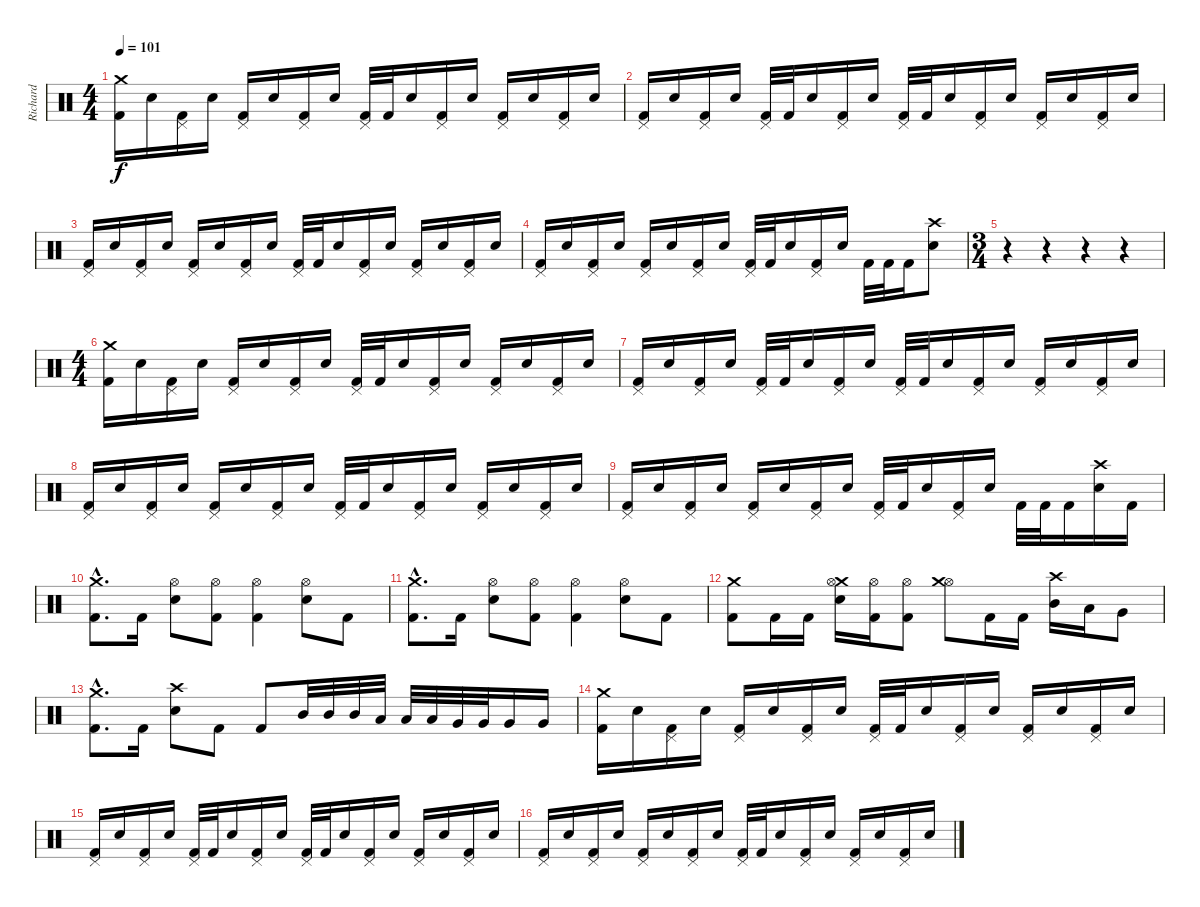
\track ("Richard" "Richard") {instrument percussion}
\staff {score}
\articulation defaults
\ts (4 4)
\tempo 101
\clef neutral
\ks c
("Crash medium (hit)" "Kick (hit) 2").16{dy f} "Electric Snare (hit)".16 ("Pedal Hi-Hat (hit)" "Kick (hit) 2").16 "Electric Snare (hit)".16 ("Pedal Hi-Hat (hit)" "Kick (hit) 2").16 "Electric Snare (hit)".16 ("Pedal Hi-Hat (hit)" "Kick (hit) 2").16 "Electric Snare (hit)".16 ("Pedal Hi-Hat (hit)" "Kick (hit) 2").32 "Kick (hit) 2".32 "Electric Snare (hit)".16 ("Pedal Hi-Hat (hit)" "Kick (hit) 2").16 "Electric Snare (hit)".16 ("Pedal Hi-Hat (hit)" "Kick (hit) 2").16 "Electric Snare (hit)".16 ("Pedal Hi-Hat (hit)" "Kick (hit) 2").16 "Electric Snare (hit)".16 |
("Pedal Hi-Hat (hit)" "Kick (hit) 2").16 "Electric Snare (hit)".16 ("Pedal Hi-Hat (hit)" "Kick (hit) 2").16 "Electric Snare (hit)".16 ("Pedal Hi-Hat (hit)" "Kick (hit) 2").32 "Kick (hit) 2".32 "Electric Snare (hit)".16 ("Pedal Hi-Hat (hit)" "Kick (hit) 2").16 "Electric Snare (hit)".16 ("Pedal Hi-Hat (hit)" "Kick (hit) 2").32 "Kick (hit) 2".32 "Electric Snare (hit)".16 ("Pedal Hi-Hat (hit)" "Kick (hit) 2").16 "Electric Snare (hit)".16 ("Pedal Hi-Hat (hit)" "Kick (hit) 2").16 "Electric Snare (hit)".16 ("Pedal Hi-Hat (hit)" "Kick (hit) 2").16 "Electric Snare (hit)".16 |
("Pedal Hi-Hat (hit)" "Kick (hit) 2").16 "Electric Snare (hit)".16 ("Pedal Hi-Hat (hit)" "Kick (hit) 2").16 "Electric Snare (hit)".16 ("Pedal Hi-Hat (hit)" "Kick (hit) 2").16 "Electric Snare (hit)".16 ("Pedal Hi-Hat (hit)" "Kick (hit) 2").16 "Electric Snare (hit)".16 ("Pedal Hi-Hat (hit)" "Kick (hit) 2").32 "Kick (hit) 2".32 "Electric Snare (hit)".16 ("Pedal Hi-Hat (hit)" "Kick (hit) 2").16 "Electric Snare (hit)".16 ("Pedal Hi-Hat (hit)" "Kick (hit) 2").16 "Electric Snare (hit)".16 ("Pedal Hi-Hat (hit)" "Kick (hit) 2").16 "Electric Snare (hit)".16 |
("Pedal Hi-Hat (hit)" "Kick (hit) 2").16 "Electric Snare (hit)".16 ("Pedal Hi-Hat (hit)" "Kick (hit) 2").16 "Electric Snare (hit)".16 ("Pedal Hi-Hat (hit)" "Kick (hit) 2").16 "Electric Snare (hit)".16 ("Pedal Hi-Hat (hit)" "Kick (hit) 2").16 "Electric Snare (hit)".16 ("Pedal Hi-Hat (hit)" "Kick (hit) 2").32 "Kick (hit) 2".32 "Electric Snare (hit)".16 ("Pedal Hi-Hat (hit)" "Kick (hit) 2").16 "Electric Snare (hit)".16 "Kick (hit) 2".32 "Kick (hit) 2".32 "Kick (hit) 2".16 ("Crash high (hit)" "Electric Snare (hit)").8 |
\ts (3 4)
r.4 r.4 r.4 r.4 |
\ts (4 4)
("Crash medium (hit)" "Kick (hit) 2").16 "Electric Snare (hit)".16 ("Pedal Hi-Hat (hit)" "Kick (hit) 2").16 "Electric Snare (hit)".16 ("Pedal Hi-Hat (hit)" "Kick (hit) 2").16 "Electric Snare (hit)".16 ("Pedal Hi-Hat (hit)" "Kick (hit) 2").16 "Electric Snare (hit)".16 ("Pedal Hi-Hat (hit)" "Kick (hit) 2").32 "Kick (hit) 2".32 "Electric Snare (hit)".16 ("Pedal Hi-Hat (hit)" "Kick (hit) 2").16 "Electric Snare (hit)".16 ("Pedal Hi-Hat (hit)" "Kick (hit) 2").16 "Electric Snare (hit)".16 ("Pedal Hi-Hat (hit)" "Kick (hit) 2").16 "Electric Snare (hit)".16 |
("Pedal Hi-Hat (hit)" "Kick (hit) 2").16 "Electric Snare (hit)".16 ("Pedal Hi-Hat (hit)" "Kick (hit) 2").16 "Electric Snare (hit)".16 ("Pedal Hi-Hat (hit)" "Kick (hit) 2").32 "Kick (hit) 2".32 "Electric Snare (hit)".16 ("Pedal Hi-Hat (hit)" "Kick (hit) 2").16 "Electric Snare (hit)".16 ("Pedal Hi-Hat (hit)" "Kick (hit) 2").32 "Kick (hit) 2".32 "Electric Snare (hit)".16 ("Pedal Hi-Hat (hit)" "Kick (hit) 2").16 "Electric Snare (hit)".16 ("Pedal Hi-Hat (hit)" "Kick (hit) 2").16 "Electric Snare (hit)".16 ("Pedal Hi-Hat (hit)" "Kick (hit) 2").16 "Electric Snare (hit)".16 |
("Pedal Hi-Hat (hit)" "Kick (hit) 2").16 "Electric Snare (hit)".16 ("Pedal Hi-Hat (hit)" "Kick (hit) 2").16 "Electric Snare (hit)".16 ("Pedal Hi-Hat (hit)" "Kick (hit) 2").16 "Electric Snare (hit)".16 ("Pedal Hi-Hat (hit)" "Kick (hit) 2").16 "Electric Snare (hit)".16 ("Pedal Hi-Hat (hit)" "Kick (hit) 2").32 "Kick (hit) 2".32 "Electric Snare (hit)".16 ("Pedal Hi-Hat (hit)" "Kick (hit) 2").16 "Electric Snare (hit)".16 ("Pedal Hi-Hat (hit)" "Kick (hit) 2").16 "Electric Snare (hit)".16 ("Pedal Hi-Hat (hit)" "Kick (hit) 2").16 "Electric Snare (hit)".16 |
("Pedal Hi-Hat (hit)" "Kick (hit) 2").16 "Electric Snare (hit)".16 ("Pedal Hi-Hat (hit)" "Kick (hit) 2").16 "Electric Snare (hit)".16 ("Pedal Hi-Hat (hit)" "Kick (hit) 2").16 "Electric Snare (hit)".16 ("Pedal Hi-Hat (hit)" "Kick (hit) 2").16 "Electric Snare (hit)".16 ("Pedal Hi-Hat (hit)" "Kick (hit) 2").32 "Kick (hit) 2".32 "Electric Snare (hit)".16 ("Pedal Hi-Hat (hit)" "Kick (hit) 2").16 "Electric Snare (hit)".16 "Kick (hit) 2".32 "Kick (hit) 2".32 "Kick (hit) 2".16 ("Crash high (hit)" "Electric Snare (hit)").16 "Kick (hit) 2".16 |
("Crash medium (hit)"{hac} "Kick (hit) 2"{hac}).8{d} "Kick (hit) 2".16 ("Hi-Hat (open)" "Electric Snare (hit)").8 ("Hi-Hat (open)" "Kick (hit) 2").8 ("Hi-Hat (open)" "Kick (hit) 2").4 ("Hi-Hat (open)" "Electric Snare (hit)").8 "Kick (hit) 2".8 |
("Crash medium (hit)"{hac} "Kick (hit) 2"{hac}).8{d} "Kick (hit) 2".16 ("Hi-Hat (open)" "Electric Snare (hit)").8 ("Hi-Hat (open)" "Kick (hit) 2").8 ("Hi-Hat (open)" "Kick (hit) 2").4 ("Hi-Hat (open)" "Electric Snare (hit)").8 "Kick (hit) 2".8 |
("Crash medium (hit)" "Kick (hit) 2").8 "Kick (hit) 2".16 "Kick (hit) 2".16 ("Crash medium (hit)" "Hi-Hat (open)" "Electric Snare (hit)").16 ("Hi-Hat (open)" "Kick (hit) 2").16 ("Hi-Hat (open)" "Kick (hit) 2").8 ("Hi-Hat (open)" "Crash medium (hit)").8 "Kick (hit) 2".16 "Kick (hit) 2".16 ("Crash high (hit)" "Mid Tom (hit)").16 "Low Tom (hit)".16 "Very Low Tom (hit)".8 |
("Crash medium (hit)"{hac} "Kick (hit) 2"{hac}).8{d} "Kick (hit) 2".16 ("Crash high (hit)" "Electric Snare (hit)").8 "Kick (hit) 2".8 "Kick (hit) 2".8 "Mid Tom (hit)".32 "Mid Tom (hit)".32 "Mid Tom (hit)".32 "Low Tom (hit)".32 "Low Tom (hit)".32 "Low Tom (hit)".32 "Very Low Tom (hit)".32 "Very Low Tom (hit)".32 "Very Low Tom (hit)".16 "Very Low Tom (hit)".16 |
("Crash medium (hit)" "Kick (hit) 2").16 "Electric Snare (hit)".16 ("Pedal Hi-Hat (hit)" "Kick (hit) 2").16 "Electric Snare (hit)".16 ("Pedal Hi-Hat (hit)" "Kick (hit) 2").16 "Electric Snare (hit)".16 ("Pedal Hi-Hat (hit)" "Kick (hit) 2").16 "Electric Snare (hit)".16 ("Pedal Hi-Hat (hit)" "Kick (hit) 2").32 "Kick (hit) 2".32 "Electric Snare (hit)".16 ("Pedal Hi-Hat (hit)" "Kick (hit) 2").16 "Electric Snare (hit)".16 ("Pedal Hi-Hat (hit)" "Kick (hit) 2").16 "Electric Snare (hit)".16 ("Pedal Hi-Hat (hit)" "Kick (hit) 2").16 "Electric Snare (hit)".16 |
("Pedal Hi-Hat (hit)" "Kick (hit) 2").16 "Electric Snare (hit)".16 ("Pedal Hi-Hat (hit)" "Kick (hit) 2").16 "Electric Snare (hit)".16 ("Pedal Hi-Hat (hit)" "Kick (hit) 2").32 "Kick (hit) 2".32 "Electric Snare (hit)".16 ("Pedal Hi-Hat (hit)" "Kick (hit) 2").16 "Electric Snare (hit)".16 ("Pedal Hi-Hat (hit)" "Kick (hit) 2").32 "Kick (hit) 2".32 "Electric Snare (hit)".16 ("Pedal Hi-Hat (hit)" "Kick (hit) 2").16 "Electric Snare (hit)".16 ("Pedal Hi-Hat (hit)" "Kick (hit) 2").16 "Electric Snare (hit)".16 ("Pedal Hi-Hat (hit)" "Kick (hit) 2").16 "Electric Snare (hit)".16 |
("Pedal Hi-Hat (hit)" "Kick (hit) 2").16 "Electric Snare (hit)".16 ("Pedal Hi-Hat (hit)" "Kick (hit) 2").16 "Electric Snare (hit)".16 ("Pedal Hi-Hat (hit)" "Kick (hit) 2").16 "Electric Snare (hit)".16 ("Pedal Hi-Hat (hit)" "Kick (hit) 2").16 "Electric Snare (hit)".16 ("Pedal Hi-Hat (hit)" "Kick (hit) 2").32 "Kick (hit) 2".32 "Electric Snare (hit)".16 ("Pedal Hi-Hat (hit)" "Kick (hit) 2").16 "Electric Snare (hit)".16 ("Pedal Hi-Hat (hit)" "Kick (hit) 2").16 "Electric Snare (hit)".16 ("Pedal Hi-Hat (hit)" "Kick (hit) 2").16 "Electric Snare (hit)".16
